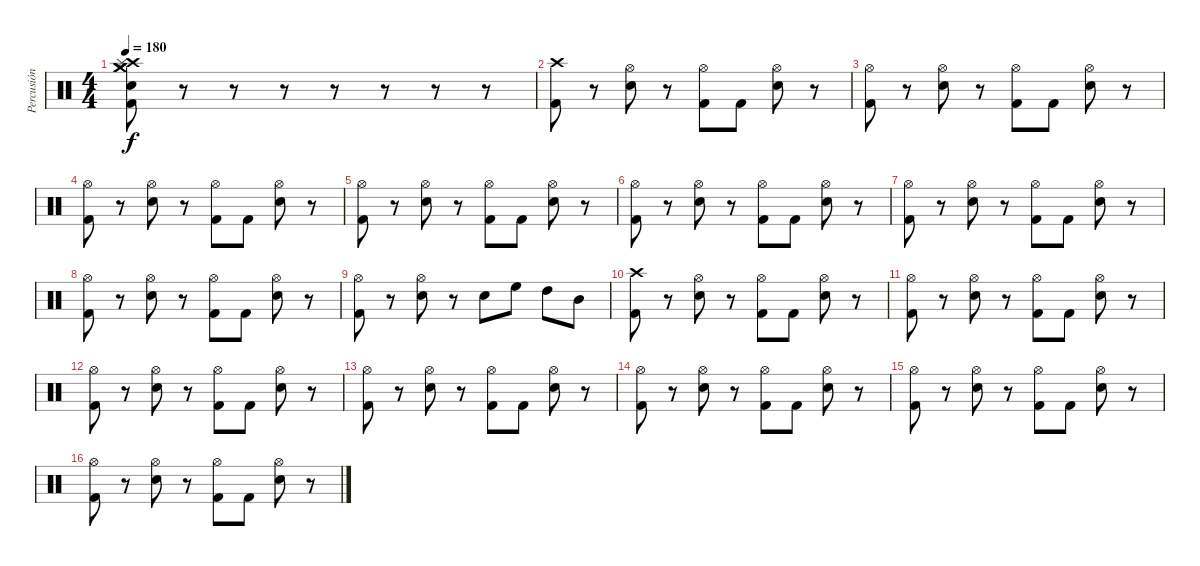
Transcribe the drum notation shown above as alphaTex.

\track ("Percusión" "Percusión") {instrument percussion}
\staff {score}
\articulation defaults
\ts (4 4)
\tempo 180
\clef neutral
\ks c
("Crash medium (hit)" "Crash medium (hit)" "Crash high (hit)" "Splash (hit)" "Kick (hit) 2" "Electric Snare (hit)").8{dy f} r.8 r.8 r.8 r.8 r.8 r.8 r.8 |
("Crash high (hit)" "Kick (hit) 2").8 r.8 ("Hi-Hat (open)" "Electric Snare (hit)").8 r.8 ("Hi-Hat (open)" "Kick (hit) 2").8 "Kick (hit) 2".8 ("Hi-Hat (open)" "Electric Snare (hit)").8 r.8 |
("Hi-Hat (open)" "Kick (hit) 2").8 r.8 ("Hi-Hat (open)" "Electric Snare (hit)").8 r.8 ("Hi-Hat (open)" "Kick (hit) 2").8 "Kick (hit) 2".8 ("Hi-Hat (open)" "Electric Snare (hit)").8 r.8 |
("Hi-Hat (open)" "Kick (hit) 2").8 r.8 ("Hi-Hat (open)" "Electric Snare (hit)").8 r.8 ("Hi-Hat (open)" "Kick (hit) 2").8 "Kick (hit) 2".8 ("Hi-Hat (open)" "Electric Snare (hit)").8 r.8 |
("Hi-Hat (open)" "Kick (hit) 2").8 r.8 ("Hi-Hat (open)" "Electric Snare (hit)").8 r.8 ("Hi-Hat (open)" "Kick (hit) 2").8 "Kick (hit) 2".8 ("Hi-Hat (open)" "Electric Snare (hit)").8 r.8 |
("Hi-Hat (open)" "Kick (hit) 2").8 r.8 ("Hi-Hat (open)" "Electric Snare (hit)").8 r.8 ("Hi-Hat (open)" "Kick (hit) 2").8 "Kick (hit) 2".8 ("Hi-Hat (open)" "Electric Snare (hit)").8 r.8 |
("Hi-Hat (open)" "Kick (hit) 2").8 r.8 ("Hi-Hat (open)" "Electric Snare (hit)").8 r.8 ("Hi-Hat (open)" "Kick (hit) 2").8 "Kick (hit) 2".8 ("Hi-Hat (open)" "Electric Snare (hit)").8 r.8 |
("Hi-Hat (open)" "Kick (hit) 2").8 r.8 ("Hi-Hat (open)" "Electric Snare (hit)").8 r.8 ("Hi-Hat (open)" "Kick (hit) 2").8 "Kick (hit) 2".8 ("Hi-Hat (open)" "Electric Snare (hit)").8 r.8 |
("Hi-Hat (open)" "Kick (hit) 2").8 r.8 ("Hi-Hat (open)" "Electric Snare (hit)").8 r.8 "Electric Snare (hit)".8 "High Floor Tom (hit)".8 "High Tom (hit)".8 "Mid Tom (hit)".8 |
("Crash high (hit)" "Kick (hit) 2").8 r.8 ("Hi-Hat (open)" "Electric Snare (hit)").8 r.8 ("Hi-Hat (open)" "Kick (hit) 2").8 "Kick (hit) 2".8 ("Hi-Hat (open)" "Electric Snare (hit)").8 r.8 |
("Hi-Hat (open)" "Kick (hit) 2").8 r.8 ("Hi-Hat (open)" "Electric Snare (hit)").8 r.8 ("Hi-Hat (open)" "Kick (hit) 2").8 "Kick (hit) 2".8 ("Hi-Hat (open)" "Electric Snare (hit)").8 r.8 |
("Hi-Hat (open)" "Kick (hit) 2").8 r.8 ("Hi-Hat (open)" "Electric Snare (hit)").8 r.8 ("Hi-Hat (open)" "Kick (hit) 2").8 "Kick (hit) 2".8 ("Hi-Hat (open)" "Electric Snare (hit)").8 r.8 |
("Hi-Hat (open)" "Kick (hit) 2").8 r.8 ("Hi-Hat (open)" "Electric Snare (hit)").8 r.8 ("Hi-Hat (open)" "Kick (hit) 2").8 "Kick (hit) 2".8 ("Hi-Hat (open)" "Electric Snare (hit)").8 r.8 |
("Hi-Hat (open)" "Kick (hit) 2").8 r.8 ("Hi-Hat (open)" "Electric Snare (hit)").8 r.8 ("Hi-Hat (open)" "Kick (hit) 2").8 "Kick (hit) 2".8 ("Hi-Hat (open)" "Electric Snare (hit)").8 r.8 |
("Hi-Hat (open)" "Kick (hit) 2").8 r.8 ("Hi-Hat (open)" "Electric Snare (hit)").8 r.8 ("Hi-Hat (open)" "Kick (hit) 2").8 "Kick (hit) 2".8 ("Hi-Hat (open)" "Electric Snare (hit)").8 r.8 |
("Hi-Hat (open)" "Kick (hit) 2").8 r.8 ("Hi-Hat (open)" "Electric Snare (hit)").8 r.8 ("Hi-Hat (open)" "Kick (hit) 2").8 "Kick (hit) 2".8 ("Hi-Hat (open)" "Electric Snare (hit)").8 r.8
